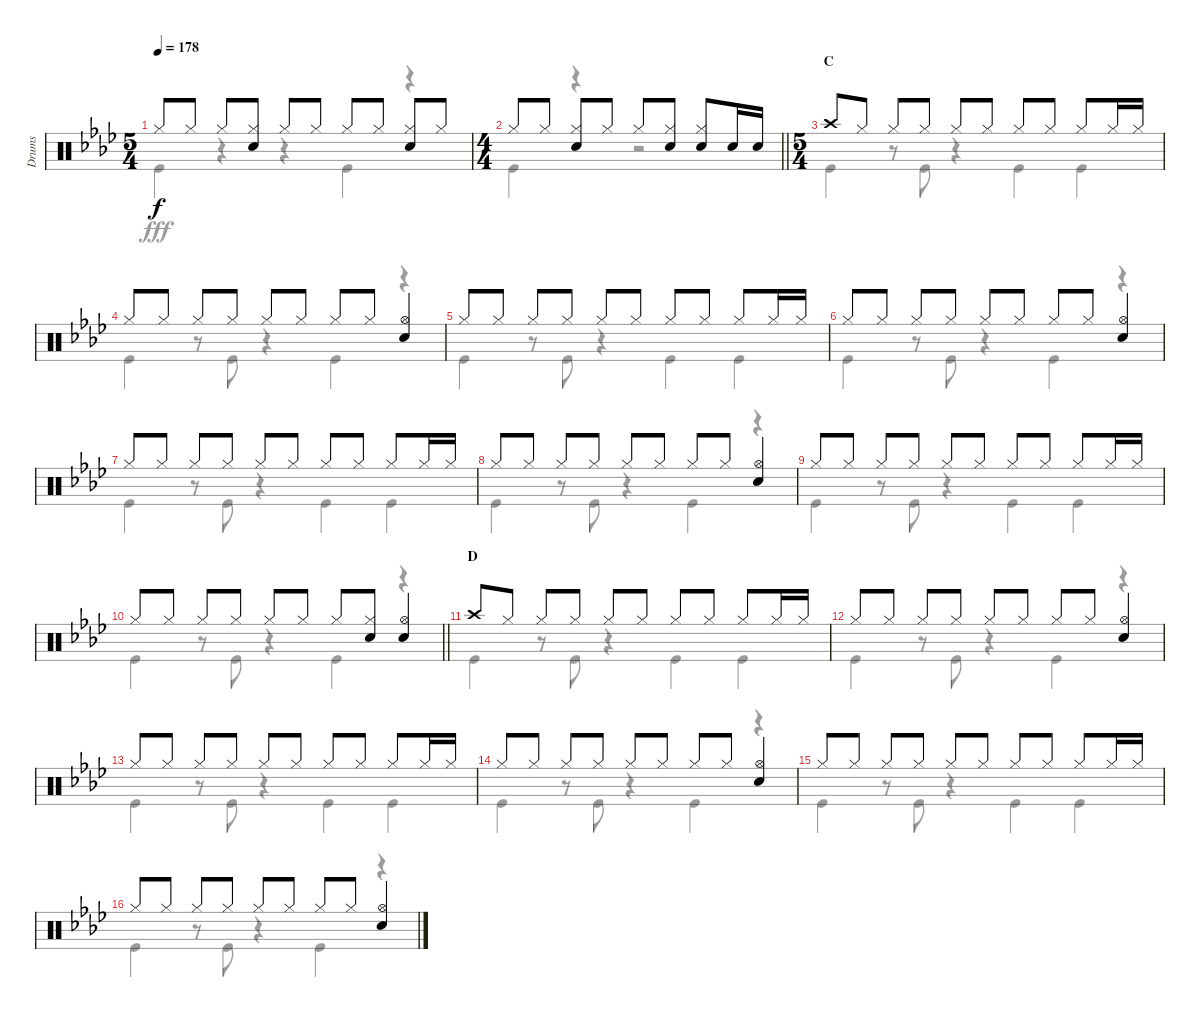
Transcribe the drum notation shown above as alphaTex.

\track ("Drums" "Drums") {instrument percussion}
\staff {score}
\articulation defaults
\voice
\ts (5 4)
\tempo 178
\clef neutral
\ks ab "Hi-Hat (closed)".8{dy f} "Hi-Hat (closed)".8 "Hi-Hat (closed)".8
("Hi-Hat (closed)" "Snare (hit) 2").8 "Hi-Hat (closed)".8 "Hi-Hat (closed)".8 "Hi-Hat (closed)".8 "Hi-Hat (closed)".8 ("Hi-Hat (closed)" "Snare (hit) 2").8 "Hi-Hat (closed)".8 |
\ts (4 4)
\barLineRight lightlight "Hi-Hat (closed)".8 "Hi-Hat (closed)".8
("Hi-Hat (closed)" "Snare (hit) 2").8 "Hi-Hat (closed)".8 "Hi-Hat (closed)".8 ("Hi-Hat (closed)" "Snare (hit) 2").8 ("Hi-Hat (closed)" "Snare (hit) 2").8 "Snare (hit) 2".16 "Snare (hit) 2".16 |
\ts (5 4)
\section ("" "C")
"Crash high (hit)".8 "Hi-Hat (closed)".8 "Hi-Hat (closed)".8 "Hi-Hat (closed)".8 "Hi-Hat (closed)".8 "Hi-Hat (closed)".8 "Hi-Hat (closed)".8 "Hi-Hat (closed)".8 "Hi-Hat (closed)".8 "Hi-Hat (closed)".16 "Hi-Hat (closed)".16 |
"Hi-Hat (closed)".8 "Hi-Hat (closed)".8 "Hi-Hat (closed)".8 "Hi-Hat (closed)".8 "Hi-Hat (closed)".8 "Hi-Hat (closed)".8 "Hi-Hat (closed)".8 "Hi-Hat (closed)".8 ("Hi-Hat (open)" "Snare (hit) 2").4 |
"Hi-Hat (closed)".8 "Hi-Hat (closed)".8 "Hi-Hat (closed)".8 "Hi-Hat (closed)".8 "Hi-Hat (closed)".8 "Hi-Hat (closed)".8 "Hi-Hat (closed)".8 "Hi-Hat (closed)".8 "Hi-Hat (closed)".8 "Hi-Hat (closed)".16 "Hi-Hat (closed)".16 |
"Hi-Hat (closed)".8 "Hi-Hat (closed)".8 "Hi-Hat (closed)".8 "Hi-Hat (closed)".8 "Hi-Hat (closed)".8 "Hi-Hat (closed)".8 "Hi-Hat (closed)".8 "Hi-Hat (closed)".8 ("Hi-Hat (open)" "Snare (hit) 2").4 |
"Hi-Hat (closed)".8 "Hi-Hat (closed)".8 "Hi-Hat (closed)".8 "Hi-Hat (closed)".8 "Hi-Hat (closed)".8 "Hi-Hat (closed)".8 "Hi-Hat (closed)".8 "Hi-Hat (closed)".8 "Hi-Hat (closed)".8 "Hi-Hat (closed)".16 "Hi-Hat (closed)".16 |
"Hi-Hat (closed)".8 "Hi-Hat (closed)".8 "Hi-Hat (closed)".8 "Hi-Hat (closed)".8 "Hi-Hat (closed)".8 "Hi-Hat (closed)".8 "Hi-Hat (closed)".8 "Hi-Hat (closed)".8 ("Hi-Hat (open)" "Snare (hit) 2").4 |
"Hi-Hat (closed)".8 "Hi-Hat (closed)".8 "Hi-Hat (closed)".8 "Hi-Hat (closed)".8 "Hi-Hat (closed)".8 "Hi-Hat (closed)".8 "Hi-Hat (closed)".8 "Hi-Hat (closed)".8 "Hi-Hat (closed)".8 "Hi-Hat (closed)".16 "Hi-Hat (closed)".16 |
\barLineRight lightlight "Hi-Hat (closed)".8 "Hi-Hat (closed)".8 "Hi-Hat (closed)".8 "Hi-Hat (closed)".8 "Hi-Hat (closed)".8 "Hi-Hat (closed)".8 "Hi-Hat (closed)".8
("Hi-Hat (closed)" "Snare (hit) 2").8 ("Hi-Hat (open)" "Snare (hit) 2").4 |
\section ("" "D")
"Crash high (hit)".8 "Hi-Hat (closed)".8 "Hi-Hat (closed)".8 "Hi-Hat (closed)".8 "Hi-Hat (closed)".8 "Hi-Hat (closed)".8 "Hi-Hat (closed)".8 "Hi-Hat (closed)".8 "Hi-Hat (closed)".8 "Hi-Hat (closed)".16 "Hi-Hat (closed)".16 |
"Hi-Hat (closed)".8 "Hi-Hat (closed)".8 "Hi-Hat (closed)".8 "Hi-Hat (closed)".8 "Hi-Hat (closed)".8 "Hi-Hat (closed)".8 "Hi-Hat (closed)".8 "Hi-Hat (closed)".8 ("Hi-Hat (open)" "Snare (hit) 2").4 |
"Hi-Hat (closed)".8 "Hi-Hat (closed)".8 "Hi-Hat (closed)".8 "Hi-Hat (closed)".8 "Hi-Hat (closed)".8 "Hi-Hat (closed)".8 "Hi-Hat (closed)".8 "Hi-Hat (closed)".8 "Hi-Hat (closed)".8 "Hi-Hat (closed)".16 "Hi-Hat (closed)".16 |
"Hi-Hat (closed)".8 "Hi-Hat (closed)".8 "Hi-Hat (closed)".8 "Hi-Hat (closed)".8 "Hi-Hat (closed)".8 "Hi-Hat (closed)".8 "Hi-Hat (closed)".8 "Hi-Hat (closed)".8 ("Hi-Hat (open)" "Snare (hit) 2").4 |
"Hi-Hat (closed)".8 "Hi-Hat (closed)".8 "Hi-Hat (closed)".8 "Hi-Hat (closed)".8 "Hi-Hat (closed)".8 "Hi-Hat (closed)".8 "Hi-Hat (closed)".8 "Hi-Hat (closed)".8 "Hi-Hat (closed)".8 "Hi-Hat (closed)".16 "Hi-Hat (closed)".16 |
"Hi-Hat (closed)".8 "Hi-Hat (closed)".8 "Hi-Hat (closed)".8 "Hi-Hat (closed)".8 "Hi-Hat (closed)".8 "Hi-Hat (closed)".8 "Hi-Hat (closed)".8 "Hi-Hat (closed)".8 ("Hi-Hat (open)" "Snare (hit) 2").4
\voice
\clef neutral
\ottava regular
\simile none
\ks ab "Kick (hit)".4{dy fff}
r.4 r.4 "Kick (hit)".4 r.4 |
\barLineRight lightlight "Kick (hit)".4
r.4 r.2 |
"Kick (hit)".4 r.8 "Kick (hit)".8 r.4 "Kick (hit)".4 "Kick (hit)".4 |
"Kick (hit)".4 r.8 "Kick (hit)".8 r.4 "Kick (hit)".4 r.4 |
"Kick (hit)".4 r.8 "Kick (hit)".8 r.4 "Kick (hit)".4 "Kick (hit)".4 |
"Kick (hit)".4 r.8 "Kick (hit)".8 r.4 "Kick (hit)".4 r.4 |
"Kick (hit)".4 r.8 "Kick (hit)".8 r.4 "Kick (hit)".4 "Kick (hit)".4 |
"Kick (hit)".4 r.8 "Kick (hit)".8 r.4 "Kick (hit)".4 r.4 |
"Kick (hit)".4 r.8 "Kick (hit)".8 r.4 "Kick (hit)".4 "Kick (hit)".4 |
\barLineRight lightlight "Kick (hit)".4
r.8 "Kick (hit)".8 r.4 "Kick (hit)".4 r.4 |
"Kick (hit)".4 r.8 "Kick (hit)".8 r.4 "Kick (hit)".4 "Kick (hit)".4 |
"Kick (hit)".4 r.8 "Kick (hit)".8 r.4 "Kick (hit)".4 r.4 |
"Kick (hit)".4 r.8 "Kick (hit)".8 r.4 "Kick (hit)".4 "Kick (hit)".4 |
"Kick (hit)".4 r.8 "Kick (hit)".8 r.4 "Kick (hit)".4 r.4 |
"Kick (hit)".4 r.8 "Kick (hit)".8 r.4 "Kick (hit)".4 "Kick (hit)".4 |
"Kick (hit)".4 r.8 "Kick (hit)".8 r.4 "Kick (hit)".4 r.4
